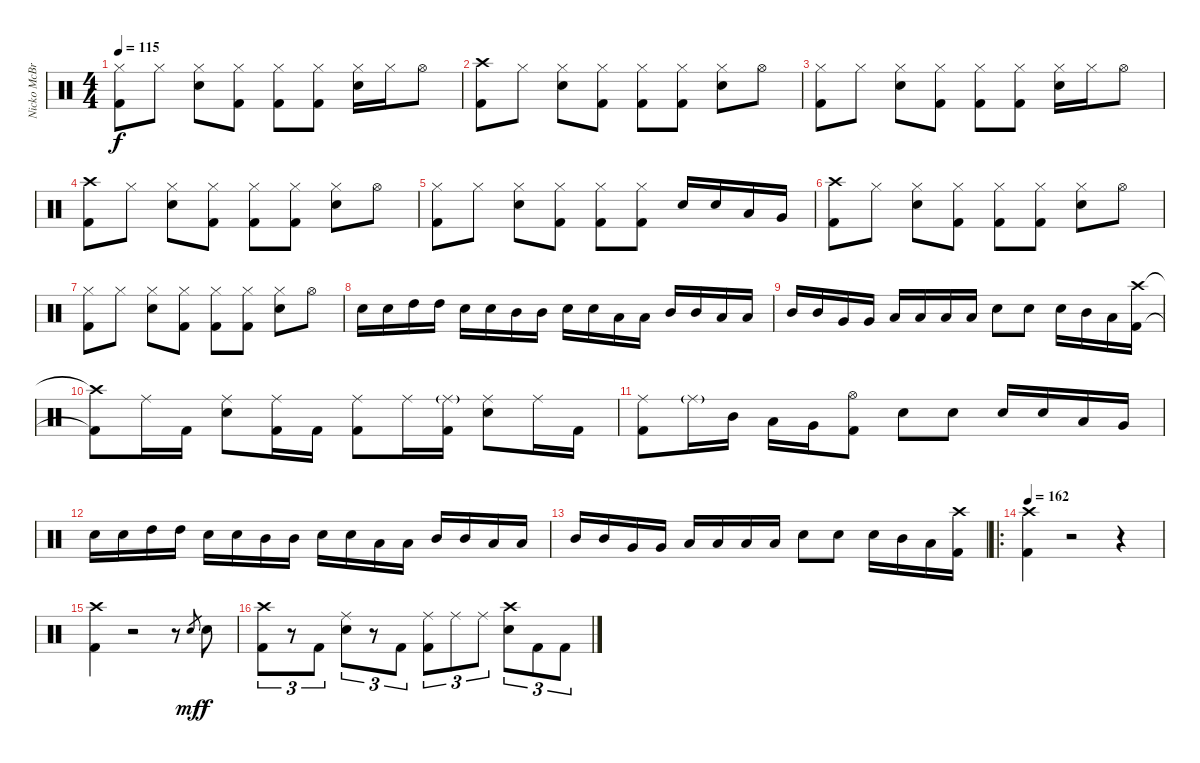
\track ("Nicko McBrain" "Nicko McBr") {instrument percussion}
\staff {score}
\articulation defaults
\ts (4 4)
\tempo 115
\clef neutral
\ks c
("Hi-Hat (closed)" "Kick (hit) 2").8{dy f} "Hi-Hat (closed)".8 ("Hi-Hat (closed)" "Electric Snare (hit)").8 ("Hi-Hat (closed)" "Kick (hit) 2").8 ("Hi-Hat (closed)" "Kick (hit) 2").8 ("Hi-Hat (closed)" "Kick (hit) 2").8 ("Hi-Hat (closed)" "Electric Snare (hit)").16 "Hi-Hat (closed)".16 "Hi-Hat (open)".8 |
("Crash high (hit)" "Kick (hit) 2").8 "Hi-Hat (closed)".8 ("Hi-Hat (closed)" "Electric Snare (hit)").8 ("Hi-Hat (closed)" "Kick (hit) 2").8 ("Hi-Hat (closed)" "Kick (hit) 2").8 ("Hi-Hat (closed)" "Kick (hit) 2").8 ("Hi-Hat (closed)" "Electric Snare (hit)").8 "Hi-Hat (open)".8 |
("Hi-Hat (closed)" "Kick (hit) 2").8 "Hi-Hat (closed)".8 ("Hi-Hat (closed)" "Electric Snare (hit)").8 ("Hi-Hat (closed)" "Kick (hit) 2").8 ("Hi-Hat (closed)" "Kick (hit) 2").8 ("Hi-Hat (closed)" "Kick (hit) 2").8 ("Hi-Hat (closed)" "Electric Snare (hit)").16 "Hi-Hat (closed)".16 "Hi-Hat (open)".8 |
("Crash high (hit)" "Kick (hit) 2").8 "Hi-Hat (closed)".8 ("Hi-Hat (closed)" "Electric Snare (hit)").8 ("Hi-Hat (closed)" "Kick (hit) 2").8 ("Hi-Hat (closed)" "Kick (hit) 2").8 ("Hi-Hat (closed)" "Kick (hit) 2").8 ("Hi-Hat (closed)" "Electric Snare (hit)").8 "Hi-Hat (open)".8 |
("Hi-Hat (closed)" "Kick (hit) 2").8 "Hi-Hat (closed)".8 ("Hi-Hat (closed)" "Electric Snare (hit)").8 ("Hi-Hat (closed)" "Kick (hit) 2").8 ("Hi-Hat (closed)" "Kick (hit) 2").8 ("Hi-Hat (closed)" "Kick (hit) 2").8 "Electric Snare (hit)".16 "Electric Snare (hit)".16 "Low Tom (hit)".16 "Very Low Tom (hit)".16 |
("Crash high (hit)" "Kick (hit) 2").8 "Hi-Hat (closed)".8 ("Hi-Hat (closed)" "Electric Snare (hit)").8 ("Hi-Hat (closed)" "Kick (hit) 2").8 ("Hi-Hat (closed)" "Kick (hit) 2").8 ("Hi-Hat (closed)" "Kick (hit) 2").8 ("Hi-Hat (closed)" "Electric Snare (hit)").8 "Hi-Hat (open)".8 |
("Hi-Hat (closed)" "Kick (hit) 2").8 "Hi-Hat (closed)".8 ("Hi-Hat (closed)" "Electric Snare (hit)").8 ("Hi-Hat (closed)" "Kick (hit) 2").8 ("Hi-Hat (closed)" "Kick (hit) 2").8 ("Hi-Hat (closed)" "Kick (hit) 2").8 ("Hi-Hat (closed)" "Electric Snare (hit)").8 "Hi-Hat (open)".8 |
"Electric Snare (hit)".16 "Electric Snare (hit)".16 "High Tom (hit)".16 "High Tom (hit)".16 "Electric Snare (hit)".16 "Electric Snare (hit)".16 "Mid Tom (hit)".16 "Mid Tom (hit)".16 "Electric Snare (hit)".16 "Electric Snare (hit)".16 "Low Tom (hit)".16 "Low Tom (hit)".16 "Mid Tom (hit)".16 "Mid Tom (hit)".16 "Low Tom (hit)".16 "Low Tom (hit)".16 |
"Mid Tom (hit)".16 "Mid Tom (hit)".16 "Very Low Tom (hit)".16 "Very Low Tom (hit)".16 "Low Tom (hit)".16 "Low Tom (hit)".16 "Low Floor Tom (hit)".16 "Low Floor Tom (hit)".16 "Electric Snare (hit)".8 "Electric Snare (hit)".8 "Electric Snare (hit)".16 "Mid Tom (hit)".16 "Low Tom (hit)".16 ("Crash high (hit)" "Kick (hit) 2").16 |
("Crash high (hit)"{t} "Kick (hit) 2"{t}).8 "Ride (middle)".16 "Kick (hit) 2".16 ("Ride (middle)" "Electric Snare (hit)").8 ("Ride (middle)" "Kick (hit) 2").16 "Kick (hit) 2".16 ("Ride (middle)" "Kick (hit) 2").8 "Ride (middle)".16 ("Ride (middle)"{g} "Kick (hit) 2").16 ("Ride (middle)" "Electric Snare (hit)").8 "Ride (middle)".16 "Kick (hit) 2".16 |
("Ride (middle)" "Kick (hit) 2").8 "Ride (middle)"{g}.16 "Mid Tom (hit)".16 "Low Tom (hit)".16 "Very Low Tom (hit)".16 ("Hi-Hat (open)" "Kick (hit) 2").8 "Electric Snare (hit)".8 "Electric Snare (hit)".8 "Electric Snare (hit)".16 "Electric Snare (hit)".16 "Low Tom (hit)".16 "Very Low Tom (hit)".16 |
"Electric Snare (hit)".16 "Electric Snare (hit)".16 "High Tom (hit)".16 "High Tom (hit)".16 "Electric Snare (hit)".16 "Electric Snare (hit)".16 "Mid Tom (hit)".16 "Mid Tom (hit)".16 "Electric Snare (hit)".16 "Electric Snare (hit)".16 "Low Tom (hit)".16 "Low Tom (hit)".16 "Mid Tom (hit)".16 "Mid Tom (hit)".16 "Low Tom (hit)".16 "Low Tom (hit)".16 |
"Mid Tom (hit)".16 "Mid Tom (hit)".16 "Very Low Tom (hit)".16 "Very Low Tom (hit)".16 "Low Tom (hit)".16 "Low Tom (hit)".16 "Low Floor Tom (hit)".16 "Low Floor Tom (hit)".16 "Electric Snare (hit)".8 "Electric Snare (hit)".8 "Electric Snare (hit)".16 "Mid Tom (hit)".16 "Low Tom (hit)".16 ("Crash high (hit)" "Kick (hit) 2").16 |
\ro
\tempo 162
("Crash high (hit)" "Kick (hit) 2").4 r.2 r.4 |
("Crash high (hit)" "Kick (hit) 2").4 r.2 r.8 "Electric Snare (hit)".8{gr dy mf} "Electric Snare (hit)".8{dy f} |
("Crash high (hit)" "Kick (hit) 2").8{tu (3 2)} r.8{tu (3 2)} "Kick (hit) 2".8{tu (3 2)} ("Ride (middle)" "Electric Snare (hit)").8{tu (3 2)} r.8{tu (3 2)} "Kick (hit) 2".8{tu (3 2)} ("Ride (middle)" "Kick (hit) 2").8{tu (3 2)} "Ride (middle)".8{tu (3 2)} "Ride (middle)".8{tu (3 2)} ("Crash high (hit)" "Electric Snare (hit)").8{tu (3 2)} "Kick (hit) 2".8{tu (3 2)} "Kick (hit) 2".8{tu (3 2)}
